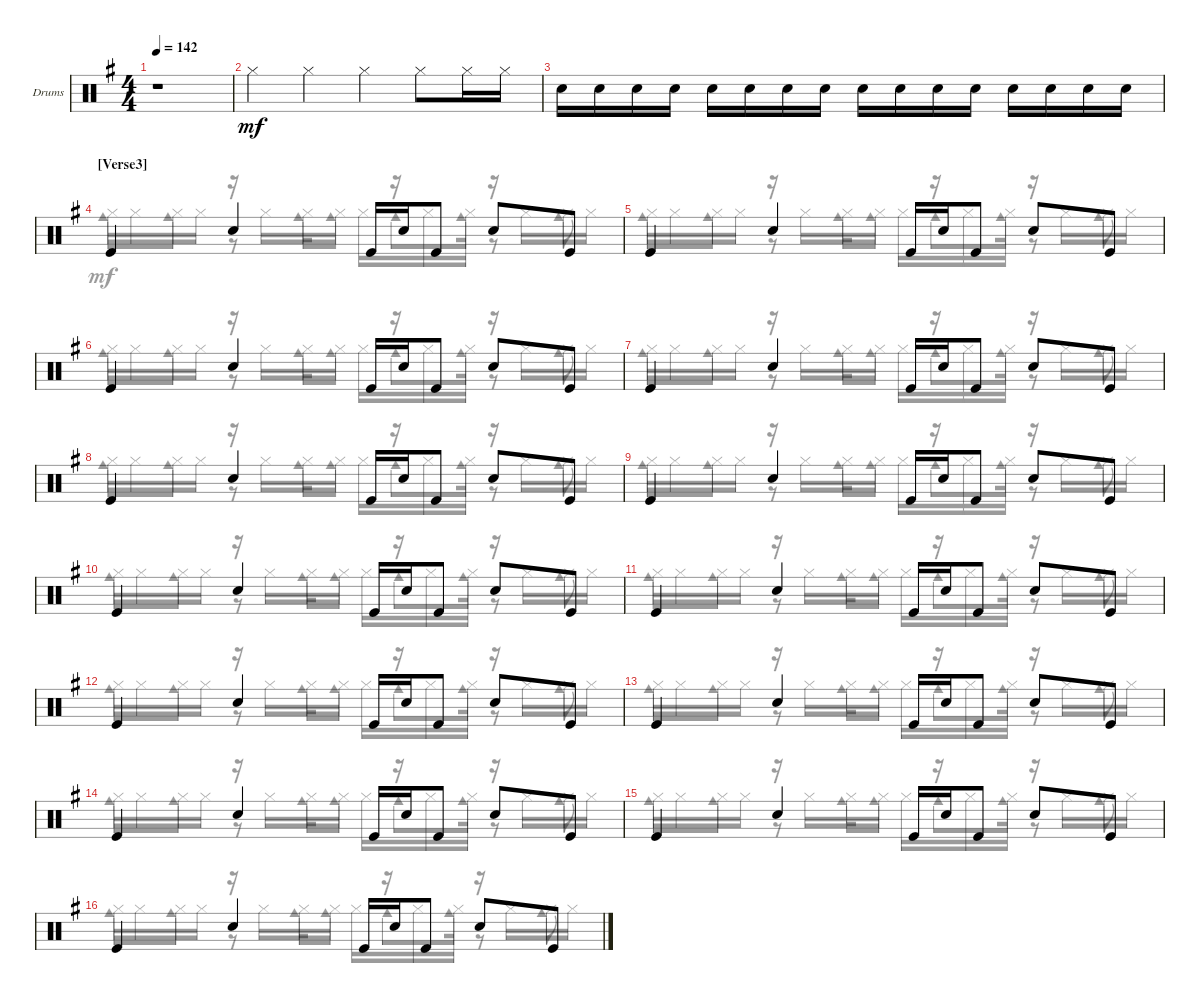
\bracketExtendMode groupsimilarinstruments
\firstSystemTrackNameOrientation horizontal
\otherSystemsTrackNameOrientation horizontal
\track ("Drumkit" "Drums") {instrument percussion}
\staff {score}
\articulation defaults
\voice
\ts (4 4)
\tempo 142
\clef neutral
\ks eminor
r.1{dy mf} |
"Hi-Hat (closed)".4 "Hi-Hat (closed)".4 "Hi-Hat (closed)".4 "Hi-Hat (closed)".8 "Hi-Hat (closed)".16 "Hi-Hat (closed)".16 |
"Snare (hit) 2".16 "Snare (hit) 2".16 "Snare (hit) 2".16 "Snare (hit) 2".16 "Snare (hit) 2".16 "Snare (hit) 2".16 "Snare (hit) 2".16 "Snare (hit) 2".16 "Snare (hit) 2".16 "Snare (hit) 2".16 "Snare (hit) 2".16 "Snare (hit) 2".16 "Snare (hit) 2".16 "Snare (hit) 2".16 "Snare (hit) 2".16 "Snare (hit) 2".16 |
\section ("" "[Verse3]")
"Kick (hit)".4 "Snare (hit) 2".4 "Kick (hit)".16 "Snare (hit) 2".16 "Kick (hit)".8 "Snare (hit) 2".8 "Kick (hit)".8 |
"Kick (hit)".4 "Snare (hit) 2".4 "Kick (hit)".16 "Snare (hit) 2".16 "Kick (hit)".8 "Snare (hit) 2".8 "Kick (hit)".8 |
"Kick (hit)".4 "Snare (hit) 2".4 "Kick (hit)".16 "Snare (hit) 2".16 "Kick (hit)".8 "Snare (hit) 2".8 "Kick (hit)".8 |
"Kick (hit)".4 "Snare (hit) 2".4 "Kick (hit)".16 "Snare (hit) 2".16 "Kick (hit)".8 "Snare (hit) 2".8 "Kick (hit)".8 |
"Kick (hit)".4 "Snare (hit) 2".4 "Kick (hit)".16 "Snare (hit) 2".16 "Kick (hit)".8 "Snare (hit) 2".8 "Kick (hit)".8 |
"Kick (hit)".4 "Snare (hit) 2".4 "Kick (hit)".16 "Snare (hit) 2".16 "Kick (hit)".8 "Snare (hit) 2".8 "Kick (hit)".8 |
"Kick (hit)".4 "Snare (hit) 2".4 "Kick (hit)".16 "Snare (hit) 2".16 "Kick (hit)".8 "Snare (hit) 2".8 "Kick (hit)".8 |
"Kick (hit)".4 "Snare (hit) 2".4 "Kick (hit)".16 "Snare (hit) 2".16 "Kick (hit)".8 "Snare (hit) 2".8 "Kick (hit)".8 |
"Kick (hit)".4 "Snare (hit) 2".4 "Kick (hit)".16 "Snare (hit) 2".16 "Kick (hit)".8 "Snare (hit) 2".8 "Kick (hit)".8 |
"Kick (hit)".4 "Snare (hit) 2".4 "Kick (hit)".16 "Snare (hit) 2".16 "Kick (hit)".8 "Snare (hit) 2".8 "Kick (hit)".8 |
"Kick (hit)".4 "Snare (hit) 2".4 "Kick (hit)".16 "Snare (hit) 2".16 "Kick (hit)".8 "Snare (hit) 2".8 "Kick (hit)".8 |
"Kick (hit)".4 "Snare (hit) 2".4 "Kick (hit)".16 "Snare (hit) 2".16 "Kick (hit)".8 "Snare (hit) 2".8 "Kick (hit)".8 |
"Kick (hit)".4 "Snare (hit) 2".4 "Kick (hit)".16 "Snare (hit) 2".16 "Kick (hit)".8 "Snare (hit) 2".8 "Kick (hit)".8
\voice
\clef neutral
\ottava regular
\simile none
\ks eminor
|
|
|
"Hi-Hat (closed)".16 "Hi-Hat (closed)".16 "Hi-Hat (closed)".16 "Hi-Hat (closed)".16 r.16 "Hi-Hat (closed)".16 "Hi-Hat (closed)".16 "Hi-Hat (closed)".16 "Hi-Hat (closed)".16 r.16 "Hi-Hat (closed)".16 "Hi-Hat (closed)".16 r.16 "Hi-Hat (closed)".16 "Hi-Hat (closed)".16 "Hi-Hat (closed)".16 |
"Hi-Hat (closed)".16 "Hi-Hat (closed)".16 "Hi-Hat (closed)".16 "Hi-Hat (closed)".16 r.16 "Hi-Hat (closed)".16 "Hi-Hat (closed)".16 "Hi-Hat (closed)".16 "Hi-Hat (closed)".16 r.16 "Hi-Hat (closed)".16 "Hi-Hat (closed)".16 r.16 "Hi-Hat (closed)".16 "Hi-Hat (closed)".16 "Hi-Hat (closed)".16 |
"Hi-Hat (closed)".16 "Hi-Hat (closed)".16 "Hi-Hat (closed)".16 "Hi-Hat (closed)".16 r.16 "Hi-Hat (closed)".16 "Hi-Hat (closed)".16 "Hi-Hat (closed)".16 "Hi-Hat (closed)".16 r.16 "Hi-Hat (closed)".16 "Hi-Hat (closed)".16 r.16 "Hi-Hat (closed)".16 "Hi-Hat (closed)".16 "Hi-Hat (closed)".16 |
"Hi-Hat (closed)".16 "Hi-Hat (closed)".16 "Hi-Hat (closed)".16 "Hi-Hat (closed)".16 r.16 "Hi-Hat (closed)".16 "Hi-Hat (closed)".16 "Hi-Hat (closed)".16 "Hi-Hat (closed)".16 r.16 "Hi-Hat (closed)".16 "Hi-Hat (closed)".16 r.16 "Hi-Hat (closed)".16 "Hi-Hat (closed)".16 "Hi-Hat (closed)".16 |
"Hi-Hat (closed)".16 "Hi-Hat (closed)".16 "Hi-Hat (closed)".16 "Hi-Hat (closed)".16 r.16 "Hi-Hat (closed)".16 "Hi-Hat (closed)".16 "Hi-Hat (closed)".16 "Hi-Hat (closed)".16 r.16 "Hi-Hat (closed)".16 "Hi-Hat (closed)".16 r.16 "Hi-Hat (closed)".16 "Hi-Hat (closed)".16 "Hi-Hat (closed)".16 |
"Hi-Hat (closed)".16 "Hi-Hat (closed)".16 "Hi-Hat (closed)".16 "Hi-Hat (closed)".16 r.16 "Hi-Hat (closed)".16 "Hi-Hat (closed)".16 "Hi-Hat (closed)".16 "Hi-Hat (closed)".16 r.16 "Hi-Hat (closed)".16 "Hi-Hat (closed)".16 r.16 "Hi-Hat (closed)".16 "Hi-Hat (closed)".16 "Hi-Hat (closed)".16 |
"Hi-Hat (closed)".16 "Hi-Hat (closed)".16 "Hi-Hat (closed)".16 "Hi-Hat (closed)".16 r.16 "Hi-Hat (closed)".16 "Hi-Hat (closed)".16 "Hi-Hat (closed)".16 "Hi-Hat (closed)".16 r.16 "Hi-Hat (closed)".16 "Hi-Hat (closed)".16 r.16 "Hi-Hat (closed)".16 "Hi-Hat (closed)".16 "Hi-Hat (closed)".16 |
"Hi-Hat (closed)".16 "Hi-Hat (closed)".16 "Hi-Hat (closed)".16 "Hi-Hat (closed)".16 r.16 "Hi-Hat (closed)".16 "Hi-Hat (closed)".16 "Hi-Hat (closed)".16 "Hi-Hat (closed)".16 r.16 "Hi-Hat (closed)".16 "Hi-Hat (closed)".16 r.16 "Hi-Hat (closed)".16 "Hi-Hat (closed)".16 "Hi-Hat (closed)".16 |
"Hi-Hat (closed)".16 "Hi-Hat (closed)".16 "Hi-Hat (closed)".16 "Hi-Hat (closed)".16 r.16 "Hi-Hat (closed)".16 "Hi-Hat (closed)".16 "Hi-Hat (closed)".16 "Hi-Hat (closed)".16 r.16 "Hi-Hat (closed)".16 "Hi-Hat (closed)".16 r.16 "Hi-Hat (closed)".16 "Hi-Hat (closed)".16 "Hi-Hat (closed)".16 |
"Hi-Hat (closed)".16 "Hi-Hat (closed)".16 "Hi-Hat (closed)".16 "Hi-Hat (closed)".16 r.16 "Hi-Hat (closed)".16 "Hi-Hat (closed)".16 "Hi-Hat (closed)".16 "Hi-Hat (closed)".16 r.16 "Hi-Hat (closed)".16 "Hi-Hat (closed)".16 r.16 "Hi-Hat (closed)".16 "Hi-Hat (closed)".16 "Hi-Hat (closed)".16 |
"Hi-Hat (closed)".16 "Hi-Hat (closed)".16 "Hi-Hat (closed)".16 "Hi-Hat (closed)".16 r.16 "Hi-Hat (closed)".16 "Hi-Hat (closed)".16 "Hi-Hat (closed)".16 "Hi-Hat (closed)".16 r.16 "Hi-Hat (closed)".16 "Hi-Hat (closed)".16 r.16 "Hi-Hat (closed)".16 "Hi-Hat (closed)".16 "Hi-Hat (closed)".16 |
"Hi-Hat (closed)".16 "Hi-Hat (closed)".16 "Hi-Hat (closed)".16 "Hi-Hat (closed)".16 r.16 "Hi-Hat (closed)".16 "Hi-Hat (closed)".16 "Hi-Hat (closed)".16 "Hi-Hat (closed)".16 r.16 "Hi-Hat (closed)".16 "Hi-Hat (closed)".16 r.16 "Hi-Hat (closed)".16 "Hi-Hat (closed)".16 "Hi-Hat (closed)".16 |
"Hi-Hat (closed)".16 "Hi-Hat (closed)".16 "Hi-Hat (closed)".16 "Hi-Hat (closed)".16 r.16 "Hi-Hat (closed)".16 "Hi-Hat (closed)".16 "Hi-Hat (closed)".16 "Hi-Hat (closed)".16 r.16 "Hi-Hat (closed)".16 "Hi-Hat (closed)".16 r.16 "Hi-Hat (closed)".16 "Hi-Hat (closed)".16 "Hi-Hat (closed)".16
\voice
\clef neutral
\ottava regular
\simile none
\ks eminor
|
|
|
"Cowbell medium (hit)".8 "Cowbell medium (hit)".8 r.8 "Cowbell medium (hit)".16 "Cowbell medium (hit)".8 "Cowbell medium (hit)".8 "Cowbell medium (hit)".16 r.8 "Cowbell medium (hit)".8 |
"Cowbell medium (hit)".8 "Cowbell medium (hit)".8 r.8 "Cowbell medium (hit)".16 "Cowbell medium (hit)".8 "Cowbell medium (hit)".8 "Cowbell medium (hit)".16 r.8 "Cowbell medium (hit)".8 |
"Cowbell medium (hit)".8 "Cowbell medium (hit)".8 r.8 "Cowbell medium (hit)".16 "Cowbell medium (hit)".8 "Cowbell medium (hit)".8 "Cowbell medium (hit)".16 r.8 "Cowbell medium (hit)".8 |
"Cowbell medium (hit)".8 "Cowbell medium (hit)".8 r.8 "Cowbell medium (hit)".16 "Cowbell medium (hit)".8 "Cowbell medium (hit)".8 "Cowbell medium (hit)".16 r.8 "Cowbell medium (hit)".8 |
"Cowbell medium (hit)".8 "Cowbell medium (hit)".8 r.8 "Cowbell medium (hit)".16 "Cowbell medium (hit)".8 "Cowbell medium (hit)".8 "Cowbell medium (hit)".16 r.8 "Cowbell medium (hit)".8 |
"Cowbell medium (hit)".8 "Cowbell medium (hit)".8 r.8 "Cowbell medium (hit)".16 "Cowbell medium (hit)".8 "Cowbell medium (hit)".8 "Cowbell medium (hit)".16 r.8 "Cowbell medium (hit)".8 |
"Cowbell medium (hit)".8 "Cowbell medium (hit)".8 r.8 "Cowbell medium (hit)".16 "Cowbell medium (hit)".8 "Cowbell medium (hit)".8 "Cowbell medium (hit)".16 r.8 "Cowbell medium (hit)".8 |
"Cowbell medium (hit)".8 "Cowbell medium (hit)".8 r.8 "Cowbell medium (hit)".16 "Cowbell medium (hit)".8 "Cowbell medium (hit)".8 "Cowbell medium (hit)".16 r.8 "Cowbell medium (hit)".8 |
"Cowbell medium (hit)".8 "Cowbell medium (hit)".8 r.8 "Cowbell medium (hit)".16 "Cowbell medium (hit)".8 "Cowbell medium (hit)".8 "Cowbell medium (hit)".16 r.8 "Cowbell medium (hit)".8 |
"Cowbell medium (hit)".8 "Cowbell medium (hit)".8 r.8 "Cowbell medium (hit)".16 "Cowbell medium (hit)".8 "Cowbell medium (hit)".8 "Cowbell medium (hit)".16 r.8 "Cowbell medium (hit)".8 |
"Cowbell medium (hit)".8 "Cowbell medium (hit)".8 r.8 "Cowbell medium (hit)".16 "Cowbell medium (hit)".8 "Cowbell medium (hit)".8 "Cowbell medium (hit)".16 r.8 "Cowbell medium (hit)".8 |
"Cowbell medium (hit)".8 "Cowbell medium (hit)".8 r.8 "Cowbell medium (hit)".16 "Cowbell medium (hit)".8 "Cowbell medium (hit)".8 "Cowbell medium (hit)".16 r.8 "Cowbell medium (hit)".8 |
"Cowbell medium (hit)".8 "Cowbell medium (hit)".8 r.8 "Cowbell medium (hit)".16 "Cowbell medium (hit)".8 "Cowbell medium (hit)".8 "Cowbell medium (hit)".16 r.8 "Cowbell medium (hit)".8
